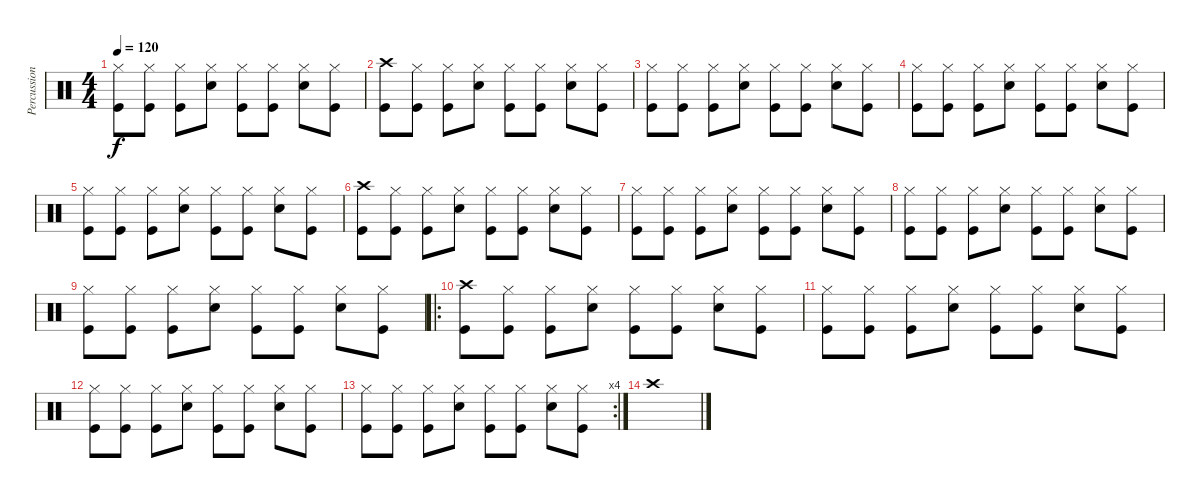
\track ("Percussions" "Percussion") {instrument percussion}
\staff {score}
\articulation defaults
\ts (4 4)
\tempo 120
\clef neutral
\ks c
("Hi-Hat (closed)" "Kick (hit)").8{dy f} ("Hi-Hat (closed)" "Kick (hit)").8 ("Hi-Hat (closed)" "Kick (hit)").8 ("Hi-Hat (closed)" "Electric Snare (hit)").8 ("Hi-Hat (closed)" "Kick (hit)").8 ("Hi-Hat (closed)" "Kick (hit)").8 ("Hi-Hat (closed)" "Electric Snare (hit)").8 ("Hi-Hat (closed)" "Kick (hit)").8 |
("Crash high (hit)" "Kick (hit)").8 ("Hi-Hat (closed)" "Kick (hit)").8 ("Hi-Hat (closed)" "Kick (hit)").8 ("Hi-Hat (closed)" "Electric Snare (hit)").8 ("Hi-Hat (closed)" "Kick (hit)").8 ("Hi-Hat (closed)" "Kick (hit)").8 ("Hi-Hat (closed)" "Electric Snare (hit)").8 ("Hi-Hat (closed)" "Kick (hit)").8 |
("Hi-Hat (closed)" "Kick (hit)").8 ("Hi-Hat (closed)" "Kick (hit)").8 ("Hi-Hat (closed)" "Kick (hit)").8 ("Hi-Hat (closed)" "Electric Snare (hit)").8 ("Hi-Hat (closed)" "Kick (hit)").8 ("Hi-Hat (closed)" "Kick (hit)").8 ("Hi-Hat (closed)" "Electric Snare (hit)").8 ("Hi-Hat (closed)" "Kick (hit)").8 |
("Hi-Hat (closed)" "Kick (hit)").8 ("Hi-Hat (closed)" "Kick (hit)").8 ("Hi-Hat (closed)" "Kick (hit)").8 ("Hi-Hat (closed)" "Electric Snare (hit)").8 ("Hi-Hat (closed)" "Kick (hit)").8 ("Hi-Hat (closed)" "Kick (hit)").8 ("Hi-Hat (closed)" "Electric Snare (hit)").8 ("Hi-Hat (closed)" "Kick (hit)").8 |
("Hi-Hat (closed)" "Kick (hit)").8 ("Hi-Hat (closed)" "Kick (hit)").8 ("Hi-Hat (closed)" "Kick (hit)").8 ("Hi-Hat (closed)" "Electric Snare (hit)").8 ("Hi-Hat (closed)" "Kick (hit)").8 ("Hi-Hat (closed)" "Kick (hit)").8 ("Hi-Hat (closed)" "Electric Snare (hit)").8 ("Hi-Hat (closed)" "Kick (hit)").8 |
("Crash high (hit)" "Kick (hit)").8 ("Hi-Hat (closed)" "Kick (hit)").8 ("Hi-Hat (closed)" "Kick (hit)").8 ("Hi-Hat (closed)" "Electric Snare (hit)").8 ("Hi-Hat (closed)" "Kick (hit)").8 ("Hi-Hat (closed)" "Kick (hit)").8 ("Hi-Hat (closed)" "Electric Snare (hit)").8 ("Hi-Hat (closed)" "Kick (hit)").8 |
("Hi-Hat (closed)" "Kick (hit)").8 ("Hi-Hat (closed)" "Kick (hit)").8 ("Hi-Hat (closed)" "Kick (hit)").8 ("Hi-Hat (closed)" "Electric Snare (hit)").8 ("Hi-Hat (closed)" "Kick (hit)").8 ("Hi-Hat (closed)" "Kick (hit)").8 ("Hi-Hat (closed)" "Electric Snare (hit)").8 ("Hi-Hat (closed)" "Kick (hit)").8 |
("Hi-Hat (closed)" "Kick (hit)").8 ("Hi-Hat (closed)" "Kick (hit)").8 ("Hi-Hat (closed)" "Kick (hit)").8 ("Hi-Hat (closed)" "Electric Snare (hit)").8 ("Hi-Hat (closed)" "Kick (hit)").8 ("Hi-Hat (closed)" "Kick (hit)").8 ("Hi-Hat (closed)" "Electric Snare (hit)").8 ("Hi-Hat (closed)" "Kick (hit)").8 |
("Hi-Hat (closed)" "Kick (hit)").8 ("Hi-Hat (closed)" "Kick (hit)").8 ("Hi-Hat (closed)" "Kick (hit)").8 ("Hi-Hat (closed)" "Electric Snare (hit)").8 ("Hi-Hat (closed)" "Kick (hit)").8 ("Hi-Hat (closed)" "Kick (hit)").8 ("Hi-Hat (closed)" "Electric Snare (hit)").8 ("Hi-Hat (closed)" "Kick (hit)").8 |
\ro
("Crash high (hit)" "Kick (hit)").8 ("Hi-Hat (closed)" "Kick (hit)").8 ("Hi-Hat (closed)" "Kick (hit)").8 ("Hi-Hat (closed)" "Electric Snare (hit)").8 ("Hi-Hat (closed)" "Kick (hit)").8 ("Hi-Hat (closed)" "Kick (hit)").8 ("Hi-Hat (closed)" "Electric Snare (hit)").8 ("Hi-Hat (closed)" "Kick (hit)").8 |
("Hi-Hat (closed)" "Kick (hit)").8 ("Hi-Hat (closed)" "Kick (hit)").8 ("Hi-Hat (closed)" "Kick (hit)").8 ("Hi-Hat (closed)" "Electric Snare (hit)").8 ("Hi-Hat (closed)" "Kick (hit)").8 ("Hi-Hat (closed)" "Kick (hit)").8 ("Hi-Hat (closed)" "Electric Snare (hit)").8 ("Hi-Hat (closed)" "Kick (hit)").8 |
("Hi-Hat (closed)" "Kick (hit)").8 ("Hi-Hat (closed)" "Kick (hit)").8 ("Hi-Hat (closed)" "Kick (hit)").8 ("Hi-Hat (closed)" "Electric Snare (hit)").8 ("Hi-Hat (closed)" "Kick (hit)").8 ("Hi-Hat (closed)" "Kick (hit)").8 ("Hi-Hat (closed)" "Electric Snare (hit)").8 ("Hi-Hat (closed)" "Kick (hit)").8 |
\rc 4
("Hi-Hat (closed)" "Kick (hit)").8 ("Hi-Hat (closed)" "Kick (hit)").8 ("Hi-Hat (closed)" "Kick (hit)").8 ("Hi-Hat (closed)" "Electric Snare (hit)").8 ("Hi-Hat (closed)" "Kick (hit)").8 ("Hi-Hat (closed)" "Kick (hit)").8 ("Hi-Hat (closed)" "Electric Snare (hit)").8 ("Hi-Hat (closed)" "Kick (hit)").8 |
"Crash high (hit)".1
